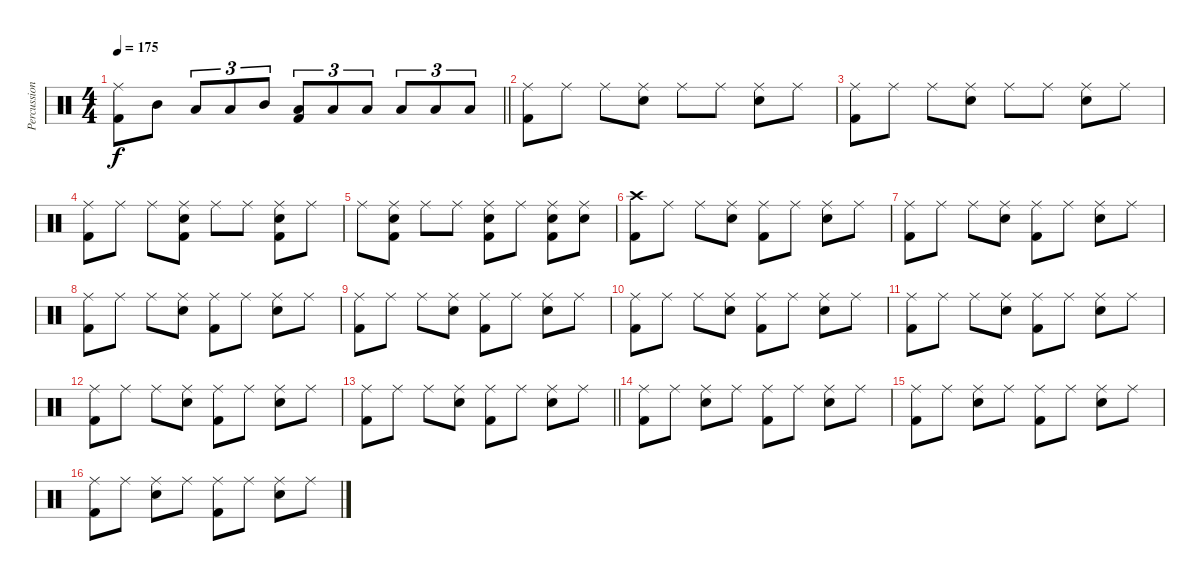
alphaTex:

\track ("Percussion" "Percussion") {instrument percussion}
\staff {score}
\articulation defaults
\ts (4 4)
\tempo 175
\clef neutral
\barLineRight lightlight
\ks c
("Ride (middle)" "Kick (hit) 2").8{dy f} "Mid Tom (hit)".8 "Low Floor Tom (hit)".8{tu (3 2)} "Low Floor Tom (hit)".8{tu (3 2)} "Mid Tom (hit)".8{tu (3 2)} ("Low Floor Tom (hit)" "Kick (hit) 2").8{tu (3 2)} "Low Floor Tom (hit)".8{tu (3 2)} "Low Floor Tom (hit)".8{tu (3 2)} "Low Floor Tom (hit)".8{tu (3 2)} "Low Floor Tom (hit)".8{tu (3 2)} "Low Floor Tom (hit)".8{tu (3 2)} |
("Ride (middle)" "Kick (hit) 2").8 "Ride (middle)".8 "Ride (middle)".8 ("Ride (middle)" "Snare (hit) 2").8 "Ride (middle)".8 "Ride (middle)".8 ("Ride (middle)" "Snare (hit) 2").8 "Ride (middle)".8 |
("Ride (middle)" "Kick (hit) 2").8 "Ride (middle)".8 "Ride (middle)".8 ("Ride (middle)" "Snare (hit) 2").8 "Ride (middle)".8 "Ride (middle)".8 ("Ride (middle)" "Snare (hit) 2").8 "Ride (middle)".8 |
("Ride (middle)" "Kick (hit) 2").8 "Ride (middle)".8 "Ride (middle)".8 ("Ride (middle)" "Snare (hit) 2" "Kick (hit) 2").8 "Ride (middle)".8 "Ride (middle)".8 ("Ride (middle)" "Snare (hit) 2" "Kick (hit) 2").8 "Ride (middle)".8 |
"Ride (middle)".8 ("Ride (middle)" "Snare (hit) 2" "Kick (hit) 2").8 "Ride (middle)".8 "Ride (middle)".8 ("Ride (middle)" "Snare (hit) 2" "Kick (hit) 2").8 "Ride (middle)".8 ("Ride (middle)" "Snare (hit) 2" "Kick (hit) 2").8 ("Ride (middle)" "Snare (hit) 2").8 |
("Crash high (hit)" "Kick (hit) 2").8 "Ride (middle)".8 "Ride (middle)".8 ("Ride (middle)" "Snare (hit) 2").8 ("Ride (middle)" "Kick (hit) 2").8 "Ride (middle)".8 ("Ride (middle)" "Snare (hit) 2").8 "Ride (middle)".8 |
("Ride (middle)" "Kick (hit) 2").8 "Ride (middle)".8 "Ride (middle)".8 ("Ride (middle)" "Snare (hit) 2").8 ("Ride (middle)" "Kick (hit) 2").8 "Ride (middle)".8 ("Ride (middle)" "Snare (hit) 2").8 "Ride (middle)".8 |
("Ride (middle)" "Kick (hit) 2").8 "Ride (middle)".8 "Ride (middle)".8 ("Ride (middle)" "Snare (hit) 2").8 ("Ride (middle)" "Kick (hit) 2").8 "Ride (middle)".8 ("Ride (middle)" "Snare (hit) 2").8 "Ride (middle)".8 |
("Ride (middle)" "Kick (hit) 2").8 "Ride (middle)".8 "Ride (middle)".8 ("Ride (middle)" "Snare (hit) 2").8 ("Ride (middle)" "Kick (hit) 2").8 "Ride (middle)".8 ("Ride (middle)" "Snare (hit) 2").8 "Ride (middle)".8 |
("Ride (middle)" "Kick (hit) 2").8 "Ride (middle)".8 "Ride (middle)".8 ("Ride (middle)" "Snare (hit) 2").8 ("Ride (middle)" "Kick (hit) 2").8 "Ride (middle)".8 ("Ride (middle)" "Snare (hit) 2").8 "Ride (middle)".8 |
("Ride (middle)" "Kick (hit) 2").8 "Ride (middle)".8 "Ride (middle)".8 ("Ride (middle)" "Snare (hit) 2").8 ("Ride (middle)" "Kick (hit) 2").8 "Ride (middle)".8 ("Ride (middle)" "Snare (hit) 2").8 "Ride (middle)".8 |
("Ride (middle)" "Kick (hit) 2").8 "Ride (middle)".8 "Ride (middle)".8 ("Ride (middle)" "Snare (hit) 2").8 ("Ride (middle)" "Kick (hit) 2").8 "Ride (middle)".8 ("Ride (middle)" "Snare (hit) 2").8 "Ride (middle)".8 |
\barLineRight lightlight
("Ride (middle)" "Kick (hit) 2").8 "Ride (middle)".8 "Ride (middle)".8 ("Ride (middle)" "Snare (hit) 2").8 ("Ride (middle)" "Kick (hit) 2").8 "Ride (middle)".8 ("Ride (middle)" "Snare (hit) 2").8 "Ride (middle)".8 |
("Ride (middle)" "Kick (hit) 2").8 "Ride (middle)".8 ("Ride (middle)" "Snare (hit) 2").8 "Ride (middle)".8 ("Ride (middle)" "Kick (hit) 2").8 "Ride (middle)".8 ("Ride (middle)" "Snare (hit) 2").8 "Ride (middle)".8 |
("Ride (middle)" "Kick (hit) 2").8 "Ride (middle)".8 ("Ride (middle)" "Snare (hit) 2").8 "Ride (middle)".8 ("Ride (middle)" "Kick (hit) 2").8 "Ride (middle)".8 ("Ride (middle)" "Snare (hit) 2").8 "Ride (middle)".8 |
("Ride (middle)" "Kick (hit) 2").8 "Ride (middle)".8 ("Ride (middle)" "Snare (hit) 2").8 "Ride (middle)".8 ("Ride (middle)" "Kick (hit) 2").8 "Ride (middle)".8 ("Ride (middle)" "Snare (hit) 2").8 "Ride (middle)".8
